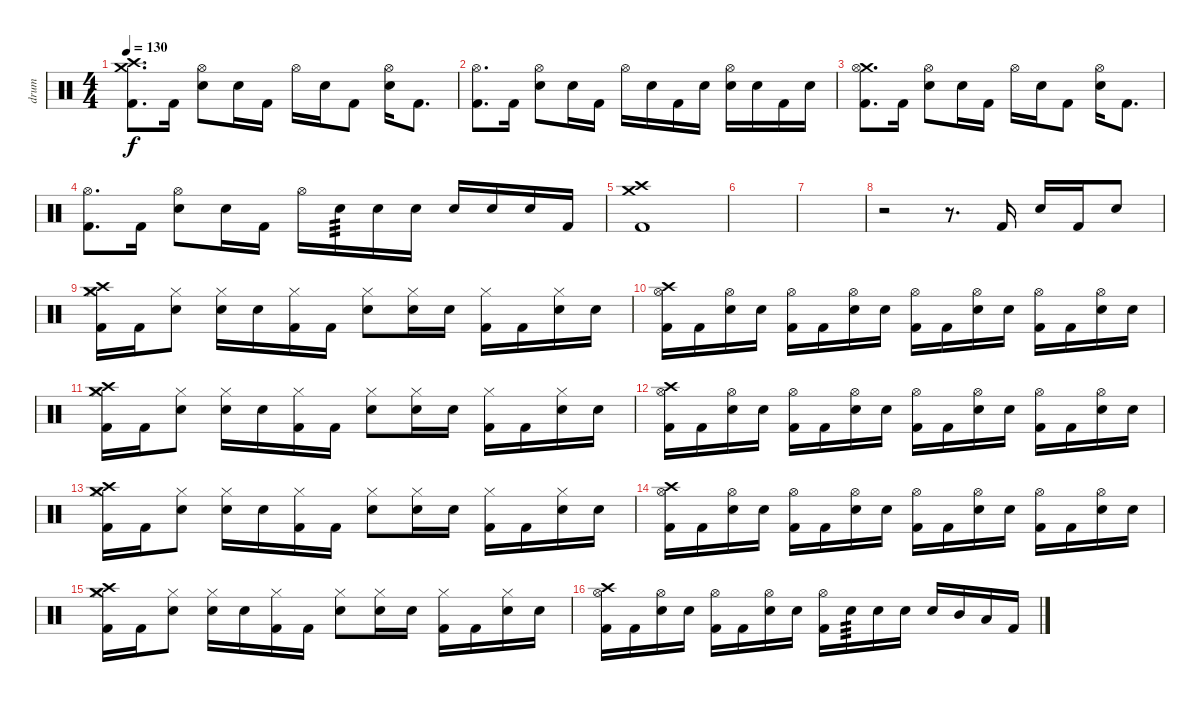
\track ("drum" "drum") {instrument percussion}
\staff {score}
\articulation defaults
\ts (4 4)
\tempo 130
\clef neutral
\ks c
("Crash medium (hit)" "Crash high (hit)" "Kick (hit) 2").8{d dy f} "Kick (hit) 2".16 ("Hi-Hat (open)" "Electric Snare (hit)").8 "Electric Snare (hit)".16 "Kick (hit) 2".16 "Hi-Hat (open)".16 "Electric Snare (hit)".16 "Kick (hit) 2".8 ("Hi-Hat (open)" "Electric Snare (hit)").16 "Kick (hit) 2".8{d} |
("Hi-Hat (open)" "Kick (hit) 2").8{d} "Kick (hit) 2".16 ("Hi-Hat (open)" "Electric Snare (hit)").8 "Electric Snare (hit)".16 "Kick (hit) 2".16 "Hi-Hat (open)".16 "Electric Snare (hit)".16 "Kick (hit) 2".16 "Electric Snare (hit)".16 ("Hi-Hat (open)" "Electric Snare (hit)").16 "Electric Snare (hit)".16 "Kick (hit) 2".16 "Electric Snare (hit)".16 |
("Crash medium (hit)" "Hi-Hat (open)" "Kick (hit) 2").8{d} "Kick (hit) 2".16 ("Hi-Hat (open)" "Electric Snare (hit)").8 "Electric Snare (hit)".16 "Kick (hit) 2".16 "Hi-Hat (open)".16 "Electric Snare (hit)".16 "Kick (hit) 2".8 ("Hi-Hat (open)" "Electric Snare (hit)").16 "Kick (hit) 2".8{d} |
("Hi-Hat (open)" "Kick (hit) 2").8{d} "Kick (hit) 2".16 ("Hi-Hat (open)" "Electric Snare (hit)").8 "Electric Snare (hit)".16 "Kick (hit) 2".16 "Hi-Hat (open)".16 "Electric Snare (hit)".16{tp 3} "Electric Snare (hit)".16 "Electric Snare (hit)".16 "Electric Snare (hit)".16 "Electric Snare (hit)".16 "Electric Snare (hit)".16 "Kick (hit) 2".16 |
("Crash medium (hit)" "Crash high (hit)" "Kick (hit) 2").1 |
|
|
r.2 r.8{d} "Kick (hit) 2".16 "Electric Snare (hit)".16 "Kick (hit) 2".16 "Electric Snare (hit)".8 |
("Crash high (hit)" "Hi-Hat (closed)" "Crash medium (hit)" "Kick (hit) 2").16 "Kick (hit) 2".16 ("Hi-Hat (closed)" "Electric Snare (hit)").8 ("Hi-Hat (closed)" "Electric Snare (hit)").16 "Electric Snare (hit)".16 ("Hi-Hat (closed)" "Kick (hit) 2").16 "Kick (hit) 2".16 ("Hi-Hat (closed)" "Electric Snare (hit)").8 ("Hi-Hat (closed)" "Electric Snare (hit)").16 "Electric Snare (hit)".16 ("Hi-Hat (closed)" "Kick (hit) 2").16 "Kick (hit) 2".16 ("Hi-Hat (closed)" "Electric Snare (hit)").16 "Electric Snare (hit)".16 |
("Crash high (hit)" "Hi-Hat (open)" "Kick (hit) 2").16 "Kick (hit) 2".16 ("Hi-Hat (open)" "Electric Snare (hit)").16 "Electric Snare (hit)".16 ("Hi-Hat (open)" "Kick (hit) 2").16 "Kick (hit) 2".16 ("Hi-Hat (open)" "Electric Snare (hit)").16 "Electric Snare (hit)".16 ("Hi-Hat (open)" "Kick (hit) 2").16 "Kick (hit) 2".16 ("Hi-Hat (open)" "Electric Snare (hit)").16 "Electric Snare (hit)".16 ("Hi-Hat (open)" "Kick (hit) 2").16 "Kick (hit) 2".16 ("Hi-Hat (open)" "Electric Snare (hit)").16 "Electric Snare (hit)".16 |
("Crash high (hit)" "Hi-Hat (closed)" "Crash medium (hit)" "Kick (hit) 2").16 "Kick (hit) 2".16 ("Hi-Hat (closed)" "Electric Snare (hit)").8 ("Hi-Hat (closed)" "Electric Snare (hit)").16 "Electric Snare (hit)".16 ("Hi-Hat (closed)" "Kick (hit) 2").16 "Kick (hit) 2".16 ("Hi-Hat (closed)" "Electric Snare (hit)").8 ("Hi-Hat (closed)" "Electric Snare (hit)").16 "Electric Snare (hit)".16 ("Hi-Hat (closed)" "Kick (hit) 2").16 "Kick (hit) 2".16 ("Hi-Hat (closed)" "Electric Snare (hit)").16 "Electric Snare (hit)".16 |
("Crash high (hit)" "Hi-Hat (open)" "Kick (hit) 2").16 "Kick (hit) 2".16 ("Hi-Hat (open)" "Electric Snare (hit)").16 "Electric Snare (hit)".16 ("Hi-Hat (open)" "Kick (hit) 2").16 "Kick (hit) 2".16 ("Hi-Hat (open)" "Electric Snare (hit)").16 "Electric Snare (hit)".16 ("Hi-Hat (open)" "Kick (hit) 2").16 "Kick (hit) 2".16 ("Hi-Hat (open)" "Electric Snare (hit)").16 "Electric Snare (hit)".16 ("Hi-Hat (open)" "Kick (hit) 2").16 "Kick (hit) 2".16 ("Hi-Hat (open)" "Electric Snare (hit)").16 "Electric Snare (hit)".16 |
("Crash high (hit)" "Hi-Hat (closed)" "Crash medium (hit)" "Kick (hit) 2").16 "Kick (hit) 2".16 ("Hi-Hat (closed)" "Electric Snare (hit)").8 ("Hi-Hat (closed)" "Electric Snare (hit)").16 "Electric Snare (hit)".16 ("Hi-Hat (closed)" "Kick (hit) 2").16 "Kick (hit) 2".16 ("Hi-Hat (closed)" "Electric Snare (hit)").8 ("Hi-Hat (closed)" "Electric Snare (hit)").16 "Electric Snare (hit)".16 ("Hi-Hat (closed)" "Kick (hit) 2").16 "Kick (hit) 2".16 ("Hi-Hat (closed)" "Electric Snare (hit)").16 "Electric Snare (hit)".16 |
("Crash high (hit)" "Hi-Hat (open)" "Kick (hit) 2").16 "Kick (hit) 2".16 ("Hi-Hat (open)" "Electric Snare (hit)").16 "Electric Snare (hit)".16 ("Hi-Hat (open)" "Kick (hit) 2").16 "Kick (hit) 2".16 ("Hi-Hat (open)" "Electric Snare (hit)").16 "Electric Snare (hit)".16 ("Hi-Hat (open)" "Kick (hit) 2").16 "Kick (hit) 2".16 ("Hi-Hat (open)" "Electric Snare (hit)").16 "Electric Snare (hit)".16 ("Hi-Hat (open)" "Kick (hit) 2").16 "Kick (hit) 2".16 ("Hi-Hat (open)" "Electric Snare (hit)").16 "Electric Snare (hit)".16 |
("Crash high (hit)" "Hi-Hat (closed)" "Crash medium (hit)" "Kick (hit) 2").16 "Kick (hit) 2".16 ("Hi-Hat (closed)" "Electric Snare (hit)").8 ("Hi-Hat (closed)" "Electric Snare (hit)").16 "Electric Snare (hit)".16 ("Hi-Hat (closed)" "Kick (hit) 2").16 "Kick (hit) 2".16 ("Hi-Hat (closed)" "Electric Snare (hit)").8 ("Hi-Hat (closed)" "Electric Snare (hit)").16 "Electric Snare (hit)".16 ("Hi-Hat (closed)" "Kick (hit) 2").16 "Kick (hit) 2".16 ("Hi-Hat (closed)" "Electric Snare (hit)").16 "Electric Snare (hit)".16 |
("Crash high (hit)" "Hi-Hat (open)" "Kick (hit) 2").16 "Kick (hit) 2".16 ("Hi-Hat (open)" "Electric Snare (hit)").16 "Electric Snare (hit)".16 ("Hi-Hat (open)" "Kick (hit) 2").16 "Kick (hit) 2".16 ("Hi-Hat (open)" "Electric Snare (hit)").16 "Electric Snare (hit)".16 ("Hi-Hat (open)" "Kick (hit) 2").16 "Electric Snare (hit)".16{tp 3} "Electric Snare (hit)".16 "Electric Snare (hit)".16 "Electric Snare (hit)".16 "Mid Tom (hit)".16 "Low Tom (hit)".16 "Kick (hit) 2".16
